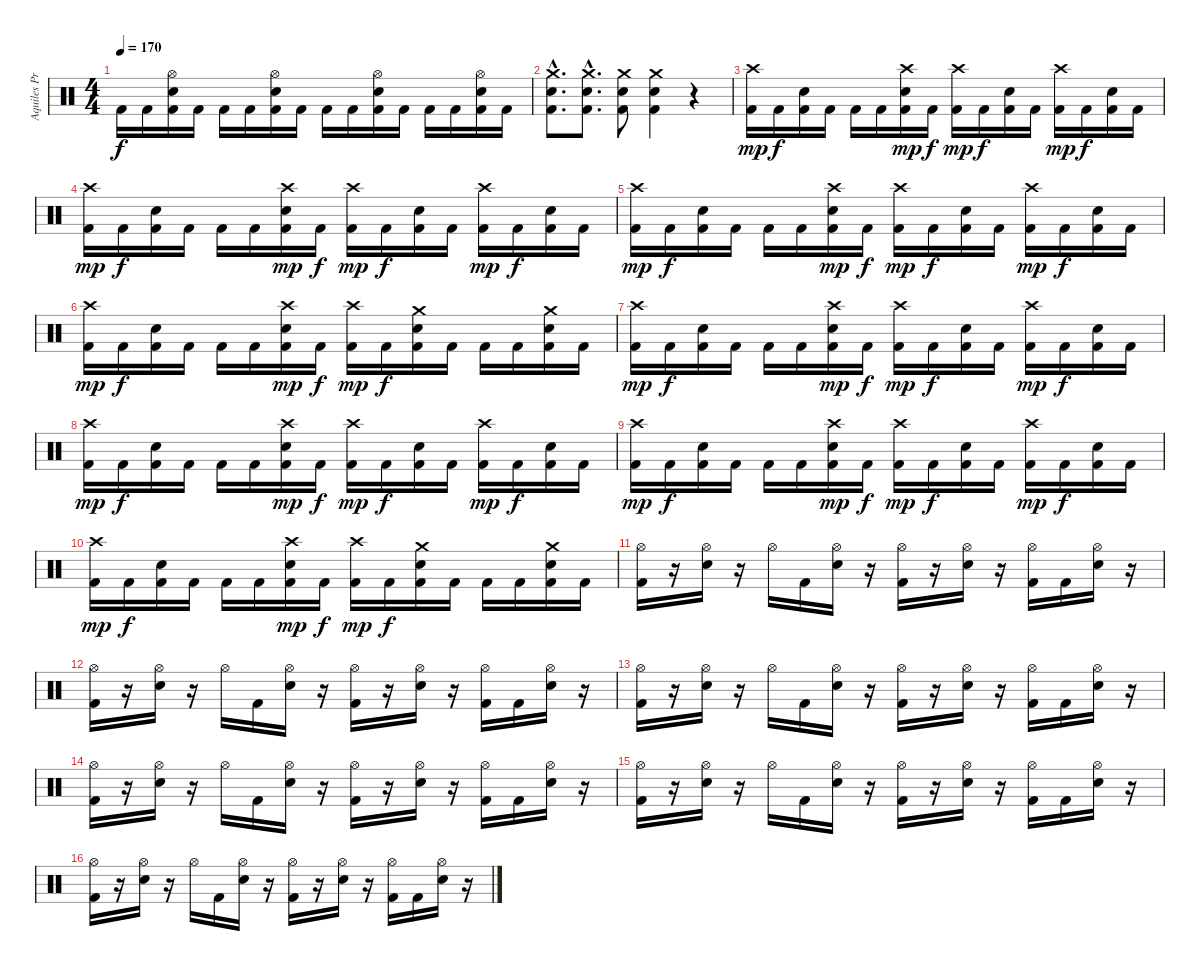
\track ("Aquiles Priester" "Aquiles Pr") {instrument percussion}
\staff {score}
\articulation defaults
\ts (4 4)
\tempo 170
\clef neutral
\ks c "Kick (hit) 2".16{dy f} "Kick (hit) 2".16
("Kick (hit) 2" "Snare (hit) 2" "Hi-Hat (open)").16 "Kick (hit) 2".16 "Kick (hit) 2".16 "Kick (hit) 2".16 ("Kick (hit) 2" "Snare (hit) 2" "Hi-Hat (open)").16 "Kick (hit) 2".16 "Kick (hit) 2".16 "Kick (hit) 2".16 ("Kick (hit) 2" "Snare (hit) 2" "Hi-Hat (open)").16 "Kick (hit) 2".16 "Kick (hit) 2".16 "Kick (hit) 2".16 ("Kick (hit) 2" "Snare (hit) 2" "Hi-Hat (open)").16 "Kick (hit) 2".16 |
("Kick (hit) 2"{hac} "Snare (hit) 2"{hac} "Crash medium (hit)"{hac}).8{d} ("Kick (hit) 2"{hac} "Snare (hit) 2"{hac} "Crash medium (hit)"{hac}).8{d} ("Kick (hit) 2" "Snare (hit) 2" "Crash medium (hit)").8 ("Kick (hit) 2" "Snare (hit) 2" "Crash medium (hit)").4 r.4 |
("Kick (hit) 2" "Crash high (hit)").16{dy mp} "Kick (hit) 2".16{dy f} ("Kick (hit) 2" "Snare (hit) 2").16 "Kick (hit) 2".16 "Kick (hit) 2".16 "Kick (hit) 2".16 ("Kick (hit) 2" "Snare (hit) 2" "Crash high (hit)").16{dy mp} "Kick (hit) 2".16{dy f} ("Kick (hit) 2" "Crash high (hit)").16{dy mp} "Kick (hit) 2".16{dy f} ("Kick (hit) 2" "Snare (hit) 2").16 "Kick (hit) 2".16 ("Kick (hit) 2" "Crash high (hit)").16{dy mp} "Kick (hit) 2".16{dy f} ("Kick (hit) 2" "Snare (hit) 2").16 "Kick (hit) 2".16 |
("Kick (hit) 2" "Crash high (hit)").16{dy mp} "Kick (hit) 2".16{dy f} ("Kick (hit) 2" "Snare (hit) 2").16 "Kick (hit) 2".16 "Kick (hit) 2".16 "Kick (hit) 2".16 ("Kick (hit) 2" "Snare (hit) 2" "Crash high (hit)").16{dy mp} "Kick (hit) 2".16{dy f} ("Kick (hit) 2" "Crash high (hit)").16{dy mp} "Kick (hit) 2".16{dy f} ("Kick (hit) 2" "Snare (hit) 2").16 "Kick (hit) 2".16 ("Kick (hit) 2" "Crash high (hit)").16{dy mp} "Kick (hit) 2".16{dy f} ("Kick (hit) 2" "Snare (hit) 2").16 "Kick (hit) 2".16 |
("Kick (hit) 2" "Crash high (hit)").16{dy mp} "Kick (hit) 2".16{dy f} ("Kick (hit) 2" "Snare (hit) 2").16 "Kick (hit) 2".16 "Kick (hit) 2".16 "Kick (hit) 2".16 ("Kick (hit) 2" "Snare (hit) 2" "Crash high (hit)").16{dy mp} "Kick (hit) 2".16{dy f} ("Kick (hit) 2" "Crash high (hit)").16{dy mp} "Kick (hit) 2".16{dy f} ("Kick (hit) 2" "Snare (hit) 2").16 "Kick (hit) 2".16 ("Kick (hit) 2" "Crash high (hit)").16{dy mp} "Kick (hit) 2".16{dy f} ("Kick (hit) 2" "Snare (hit) 2").16 "Kick (hit) 2".16 |
("Kick (hit) 2" "Crash high (hit)").16{dy mp} "Kick (hit) 2".16{dy f} ("Kick (hit) 2" "Snare (hit) 2").16 "Kick (hit) 2".16 "Kick (hit) 2".16 "Kick (hit) 2".16 ("Kick (hit) 2" "Snare (hit) 2" "Crash high (hit)").16{dy mp} "Kick (hit) 2".16{dy f} ("Kick (hit) 2" "Crash high (hit)").16{dy mp} "Kick (hit) 2".16{dy f} ("Kick (hit) 2" "Snare (hit) 2" "Crash medium (hit)").16 "Kick (hit) 2".16 "Kick (hit) 2".16 "Kick (hit) 2".16 ("Kick (hit) 2" "Snare (hit) 2" "Crash medium (hit)").16 "Kick (hit) 2".16 |
("Kick (hit) 2" "Crash high (hit)").16{dy mp} "Kick (hit) 2".16{dy f} ("Kick (hit) 2" "Snare (hit) 2").16 "Kick (hit) 2".16 "Kick (hit) 2".16 "Kick (hit) 2".16 ("Kick (hit) 2" "Snare (hit) 2" "Crash high (hit)").16{dy mp} "Kick (hit) 2".16{dy f} ("Kick (hit) 2" "Crash high (hit)").16{dy mp} "Kick (hit) 2".16{dy f} ("Kick (hit) 2" "Snare (hit) 2").16 "Kick (hit) 2".16 ("Kick (hit) 2" "Crash high (hit)").16{dy mp} "Kick (hit) 2".16{dy f} ("Kick (hit) 2" "Snare (hit) 2").16 "Kick (hit) 2".16 |
("Kick (hit) 2" "Crash high (hit)").16{dy mp} "Kick (hit) 2".16{dy f} ("Kick (hit) 2" "Snare (hit) 2").16 "Kick (hit) 2".16 "Kick (hit) 2".16 "Kick (hit) 2".16 ("Kick (hit) 2" "Snare (hit) 2" "Crash high (hit)").16{dy mp} "Kick (hit) 2".16{dy f} ("Kick (hit) 2" "Crash high (hit)").16{dy mp} "Kick (hit) 2".16{dy f} ("Kick (hit) 2" "Snare (hit) 2").16 "Kick (hit) 2".16 ("Kick (hit) 2" "Crash high (hit)").16{dy mp} "Kick (hit) 2".16{dy f} ("Kick (hit) 2" "Snare (hit) 2").16 "Kick (hit) 2".16 |
("Kick (hit) 2" "Crash high (hit)").16{dy mp} "Kick (hit) 2".16{dy f} ("Kick (hit) 2" "Snare (hit) 2").16 "Kick (hit) 2".16 "Kick (hit) 2".16 "Kick (hit) 2".16 ("Kick (hit) 2" "Snare (hit) 2" "Crash high (hit)").16{dy mp} "Kick (hit) 2".16{dy f} ("Kick (hit) 2" "Crash high (hit)").16{dy mp} "Kick (hit) 2".16{dy f} ("Kick (hit) 2" "Snare (hit) 2").16 "Kick (hit) 2".16 ("Kick (hit) 2" "Crash high (hit)").16{dy mp} "Kick (hit) 2".16{dy f} ("Kick (hit) 2" "Snare (hit) 2").16 "Kick (hit) 2".16 |
("Kick (hit) 2" "Crash high (hit)").16{dy mp} "Kick (hit) 2".16{dy f} ("Kick (hit) 2" "Snare (hit) 2").16 "Kick (hit) 2".16 "Kick (hit) 2".16 "Kick (hit) 2".16 ("Kick (hit) 2" "Snare (hit) 2" "Crash high (hit)").16{dy mp} "Kick (hit) 2".16{dy f} ("Kick (hit) 2" "Crash high (hit)").16{dy mp} "Kick (hit) 2".16{dy f} ("Kick (hit) 2" "Snare (hit) 2" "Crash medium (hit)").16 "Kick (hit) 2".16 "Kick (hit) 2".16 "Kick (hit) 2".16 ("Kick (hit) 2" "Snare (hit) 2" "Crash medium (hit)").16 "Kick (hit) 2".16 |
("Kick (hit) 2" "Hi-Hat (open)").16 r.16 ("Snare (hit) 2" "Hi-Hat (open)").16 r.16 "Hi-Hat (open)".16 "Kick (hit) 2".16 ("Snare (hit) 2" "Hi-Hat (open)").16 r.16 ("Kick (hit) 2" "Hi-Hat (open)").16 r.16 ("Snare (hit) 2" "Hi-Hat (open)").16 r.16 ("Kick (hit) 2" "Hi-Hat (open)").16 "Kick (hit) 2".16 ("Snare (hit) 2" "Hi-Hat (open)").16 r.16 |
("Kick (hit) 2" "Hi-Hat (open)").16 r.16 ("Snare (hit) 2" "Hi-Hat (open)").16 r.16 "Hi-Hat (open)".16 "Kick (hit) 2".16 ("Snare (hit) 2" "Hi-Hat (open)").16 r.16 ("Kick (hit) 2" "Hi-Hat (open)").16 r.16 ("Snare (hit) 2" "Hi-Hat (open)").16 r.16 ("Kick (hit) 2" "Hi-Hat (open)").16 "Kick (hit) 2".16 ("Snare (hit) 2" "Hi-Hat (open)").16 r.16 |
("Kick (hit) 2" "Hi-Hat (open)").16 r.16 ("Snare (hit) 2" "Hi-Hat (open)").16 r.16 "Hi-Hat (open)".16 "Kick (hit) 2".16 ("Snare (hit) 2" "Hi-Hat (open)").16 r.16 ("Kick (hit) 2" "Hi-Hat (open)").16 r.16 ("Snare (hit) 2" "Hi-Hat (open)").16 r.16 ("Kick (hit) 2" "Hi-Hat (open)").16 "Kick (hit) 2".16 ("Snare (hit) 2" "Hi-Hat (open)").16 r.16 |
("Kick (hit) 2" "Hi-Hat (open)").16 r.16 ("Snare (hit) 2" "Hi-Hat (open)").16 r.16 "Hi-Hat (open)".16 "Kick (hit) 2".16 ("Snare (hit) 2" "Hi-Hat (open)").16 r.16 ("Kick (hit) 2" "Hi-Hat (open)").16 r.16 ("Snare (hit) 2" "Hi-Hat (open)").16 r.16 ("Kick (hit) 2" "Hi-Hat (open)").16 "Kick (hit) 2".16 ("Snare (hit) 2" "Hi-Hat (open)").16 r.16 |
("Kick (hit) 2" "Hi-Hat (open)").16 r.16 ("Snare (hit) 2" "Hi-Hat (open)").16 r.16 "Hi-Hat (open)".16 "Kick (hit) 2".16 ("Snare (hit) 2" "Hi-Hat (open)").16 r.16 ("Kick (hit) 2" "Hi-Hat (open)").16 r.16 ("Snare (hit) 2" "Hi-Hat (open)").16 r.16 ("Kick (hit) 2" "Hi-Hat (open)").16 "Kick (hit) 2".16 ("Snare (hit) 2" "Hi-Hat (open)").16 r.16 |
("Kick (hit) 2" "Hi-Hat (open)").16 r.16 ("Snare (hit) 2" "Hi-Hat (open)").16 r.16 "Hi-Hat (open)".16 "Kick (hit) 2".16 ("Snare (hit) 2" "Hi-Hat (open)").16 r.16 ("Kick (hit) 2" "Hi-Hat (open)").16 r.16 ("Snare (hit) 2" "Hi-Hat (open)").16 r.16 ("Kick (hit) 2" "Hi-Hat (open)").16 "Kick (hit) 2".16 ("Snare (hit) 2" "Hi-Hat (open)").16 r.16
